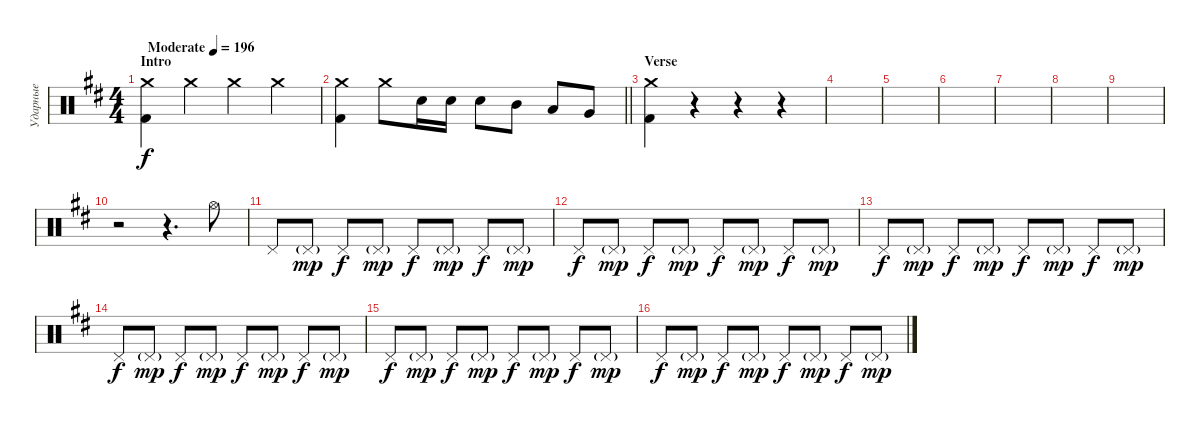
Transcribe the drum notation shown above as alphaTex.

\track ("Ударные" "Ударные") {instrument percussion}
\staff {score}
\articulation defaults
\ts (4 4)
\section ("" "Intro")
\tempo (196 "Moderate")
\clef neutral
\ks d
("Crash medium (hit)" "Kick (hit) 2").4{dy f} "Crash medium (hit)".4 "Crash medium (hit)".4 "Crash medium (hit)".4 |
\barLineRight lightlight
("Crash medium (hit)" "Kick (hit) 2").4 "Crash medium (hit)".8 "Electric Snare (hit)".16 "Electric Snare (hit)".16 "Electric Snare (hit)".8 "Mid Tom (hit)".8 "Low Tom (hit)".8 "Very Low Tom (hit)".8 |
\section ("" "Verse")
("Crash medium (hit)" "Kick (hit) 2").4 r.4 r.4 r.4 |
|
|
|
|
|
|
r.2 r.4{d} "Hi-Hat (open)".8 |
"Pedal Hi-Hat (hit)".8 "Pedal Hi-Hat (hit)"{g}.8{dy mp} "Pedal Hi-Hat (hit)".8{dy f} "Pedal Hi-Hat (hit)"{g}.8{dy mp} "Pedal Hi-Hat (hit)".8{dy f} "Pedal Hi-Hat (hit)"{g}.8{dy mp} "Pedal Hi-Hat (hit)".8{dy f} "Pedal Hi-Hat (hit)"{g}.8{dy mp} |
"Pedal Hi-Hat (hit)".8{dy f} "Pedal Hi-Hat (hit)"{g}.8{dy mp} "Pedal Hi-Hat (hit)".8{dy f} "Pedal Hi-Hat (hit)"{g}.8{dy mp} "Pedal Hi-Hat (hit)".8{dy f} "Pedal Hi-Hat (hit)"{g}.8{dy mp} "Pedal Hi-Hat (hit)".8{dy f} "Pedal Hi-Hat (hit)"{g}.8{dy mp} |
"Pedal Hi-Hat (hit)".8{dy f} "Pedal Hi-Hat (hit)"{g}.8{dy mp} "Pedal Hi-Hat (hit)".8{dy f} "Pedal Hi-Hat (hit)"{g}.8{dy mp} "Pedal Hi-Hat (hit)".8{dy f} "Pedal Hi-Hat (hit)"{g}.8{dy mp} "Pedal Hi-Hat (hit)".8{dy f} "Pedal Hi-Hat (hit)"{g}.8{dy mp} |
"Pedal Hi-Hat (hit)".8{dy f} "Pedal Hi-Hat (hit)"{g}.8{dy mp} "Pedal Hi-Hat (hit)".8{dy f} "Pedal Hi-Hat (hit)"{g}.8{dy mp} "Pedal Hi-Hat (hit)".8{dy f} "Pedal Hi-Hat (hit)"{g}.8{dy mp} "Pedal Hi-Hat (hit)".8{dy f} "Pedal Hi-Hat (hit)"{g}.8{dy mp} |
"Pedal Hi-Hat (hit)".8{dy f} "Pedal Hi-Hat (hit)"{g}.8{dy mp} "Pedal Hi-Hat (hit)".8{dy f} "Pedal Hi-Hat (hit)"{g}.8{dy mp} "Pedal Hi-Hat (hit)".8{dy f} "Pedal Hi-Hat (hit)"{g}.8{dy mp} "Pedal Hi-Hat (hit)".8{dy f} "Pedal Hi-Hat (hit)"{g}.8{dy mp} |
"Pedal Hi-Hat (hit)".8{dy f} "Pedal Hi-Hat (hit)"{g}.8{dy mp} "Pedal Hi-Hat (hit)".8{dy f} "Pedal Hi-Hat (hit)"{g}.8{dy mp} "Pedal Hi-Hat (hit)".8{dy f} "Pedal Hi-Hat (hit)"{g}.8{dy mp} "Pedal Hi-Hat (hit)".8{dy f} "Pedal Hi-Hat (hit)"{g}.8{dy mp}
